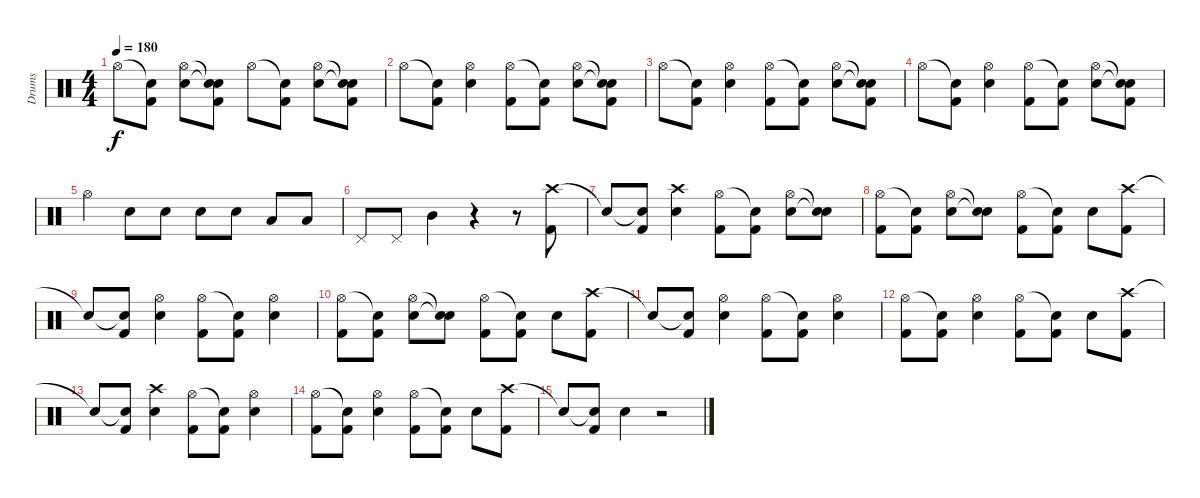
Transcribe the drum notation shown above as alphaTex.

\track ("Drums" "Drums") {instrument percussion}
\staff {score}
\articulation defaults
\ts (4 4)
\tempo 180
\clef neutral
\ks c "Hi-Hat (open)".8{dy f}
("Snare (hit)"{t} "Kick (hit) 2").8 ("Hi-Hat (open)" "Snare (hit) 2").8 ("Snare (hit)"{t} "Snare (hit)"{t} "Kick (hit) 2").8 "Hi-Hat (open)".8 ("Snare (hit)"{t} "Kick (hit) 2").8 ("Hi-Hat (open)" "Snare (hit) 2").8 ("Snare (hit)"{t} "Snare (hit)"{t} "Kick (hit) 2").8 |
"Hi-Hat (open)".8 ("Snare (hit)"{t} "Kick (hit) 2").8 ("Hi-Hat (open)" "Snare (hit) 2").4 ("Hi-Hat (open)" "Kick (hit) 2").8 ("Snare (hit)"{t} "Kick (hit) 2").8 ("Hi-Hat (open)" "Snare (hit) 2").8 ("Snare (hit)"{t} "Snare (hit)"{t} "Kick (hit) 2").8 |
"Hi-Hat (open)".8 ("Snare (hit)"{t} "Kick (hit) 2").8 ("Hi-Hat (open)" "Snare (hit) 2").4 ("Hi-Hat (open)" "Kick (hit) 2").8 ("Snare (hit)"{t} "Kick (hit) 2").8 ("Hi-Hat (open)" "Snare (hit) 2").8 ("Snare (hit)"{t} "Snare (hit)"{t} "Kick (hit) 2").8 |
"Hi-Hat (open)".8 ("Snare (hit)"{t} "Kick (hit) 2").8 ("Hi-Hat (open)" "Snare (hit) 2").4 ("Hi-Hat (open)" "Kick (hit) 2").8 ("Snare (hit)"{t} "Kick (hit) 2").8 ("Hi-Hat (open)" "Snare (hit) 2").8 ("Snare (hit)"{t} "Snare (hit)"{t} "Kick (hit) 2").8 |
"Hi-Hat (open)".4 "Snare (hit) 2".8 "Snare (hit) 2".8 "Snare (hit) 2".8 "Snare (hit) 2".8 "Low Tom (hit)".8 "Low Tom (hit)".8 |
"Pedal Hi-Hat (hit)".8 "Pedal Hi-Hat (hit)".8 "Mid Tom (hit)".4 r.4 r.8 ("Crash high (hit)" "Kick (hit) 2").8 |
"Snare (hit)"{t}.8 ("Snare (hit)"{t} "Kick (hit) 2").8 ("Crash high (hit)" "Snare (hit) 2").4 ("Hi-Hat (open)" "Kick (hit) 2").8 ("Snare (hit)"{t} "Kick (hit) 2").8 ("Hi-Hat (open)" "Snare (hit) 2").8 ("Snare (hit)"{t} "Snare (hit)"{t}).8 |
("Hi-Hat (open)" "Kick (hit) 2").8 ("Snare (hit)"{t} "Kick (hit) 2").8 ("Hi-Hat (open)" "Snare (hit) 2").8 ("Snare (hit)"{t} "Snare (hit)"{t}).8 ("Hi-Hat (open)" "Kick (hit) 2").8 ("Snare (hit)"{t} "Kick (hit) 2").8 "Snare (hit) 2".8 ("Crash high (hit)" "Kick (hit) 2").8 |
"Snare (hit)"{t}.8 ("Snare (hit)"{t} "Kick (hit) 2").8 ("Hi-Hat (open)" "Snare (hit) 2").4 ("Hi-Hat (open)" "Kick (hit) 2").8 ("Snare (hit)"{t} "Kick (hit) 2").8 ("Hi-Hat (open)" "Snare (hit) 2").4 |
("Hi-Hat (open)" "Kick (hit) 2").8 ("Snare (hit)"{t} "Kick (hit) 2").8 ("Hi-Hat (open)" "Snare (hit) 2").8 ("Snare (hit)"{t} "Snare (hit)"{t}).8 ("Hi-Hat (open)" "Kick (hit) 2").8 ("Snare (hit)"{t} "Kick (hit) 2").8 "Snare (hit) 2".8 ("Crash high (hit)" "Kick (hit) 2").8 |
"Snare (hit)"{t}.8 ("Snare (hit)"{t} "Kick (hit) 2").8 ("Hi-Hat (open)" "Snare (hit) 2").4 ("Hi-Hat (open)" "Kick (hit) 2").8 ("Snare (hit)"{t} "Kick (hit) 2").8 ("Hi-Hat (open)" "Snare (hit) 2").4 |
("Hi-Hat (open)" "Kick (hit) 2").8 ("Snare (hit)"{t} "Kick (hit) 2").8 ("Hi-Hat (open)" "Snare (hit) 2").4 ("Hi-Hat (open)" "Kick (hit) 2").8 ("Snare (hit)"{t} "Kick (hit) 2").8 "Snare (hit) 2".8 ("Crash high (hit)" "Kick (hit) 2").8 |
"Snare (hit)"{t}.8 ("Snare (hit)"{t} "Kick (hit) 2").8 ("Crash high (hit)" "Snare (hit) 2").4 ("Hi-Hat (open)" "Kick (hit) 2").8 ("Snare (hit)"{t} "Kick (hit) 2").8 ("Hi-Hat (open)" "Snare (hit) 2").4 |
("Hi-Hat (open)" "Kick (hit) 2").8 ("Snare (hit)"{t} "Kick (hit) 2").8 ("Hi-Hat (open)" "Snare (hit) 2").4 ("Hi-Hat (open)" "Kick (hit) 2").8 ("Snare (hit)"{t} "Kick (hit) 2").8 "Snare (hit) 2".8 ("Crash high (hit)" "Kick (hit) 2").8 |
"Snare (hit)"{t}.8 ("Snare (hit)"{t} "Kick (hit) 2").8 "Snare (hit) 2".4 r.2
